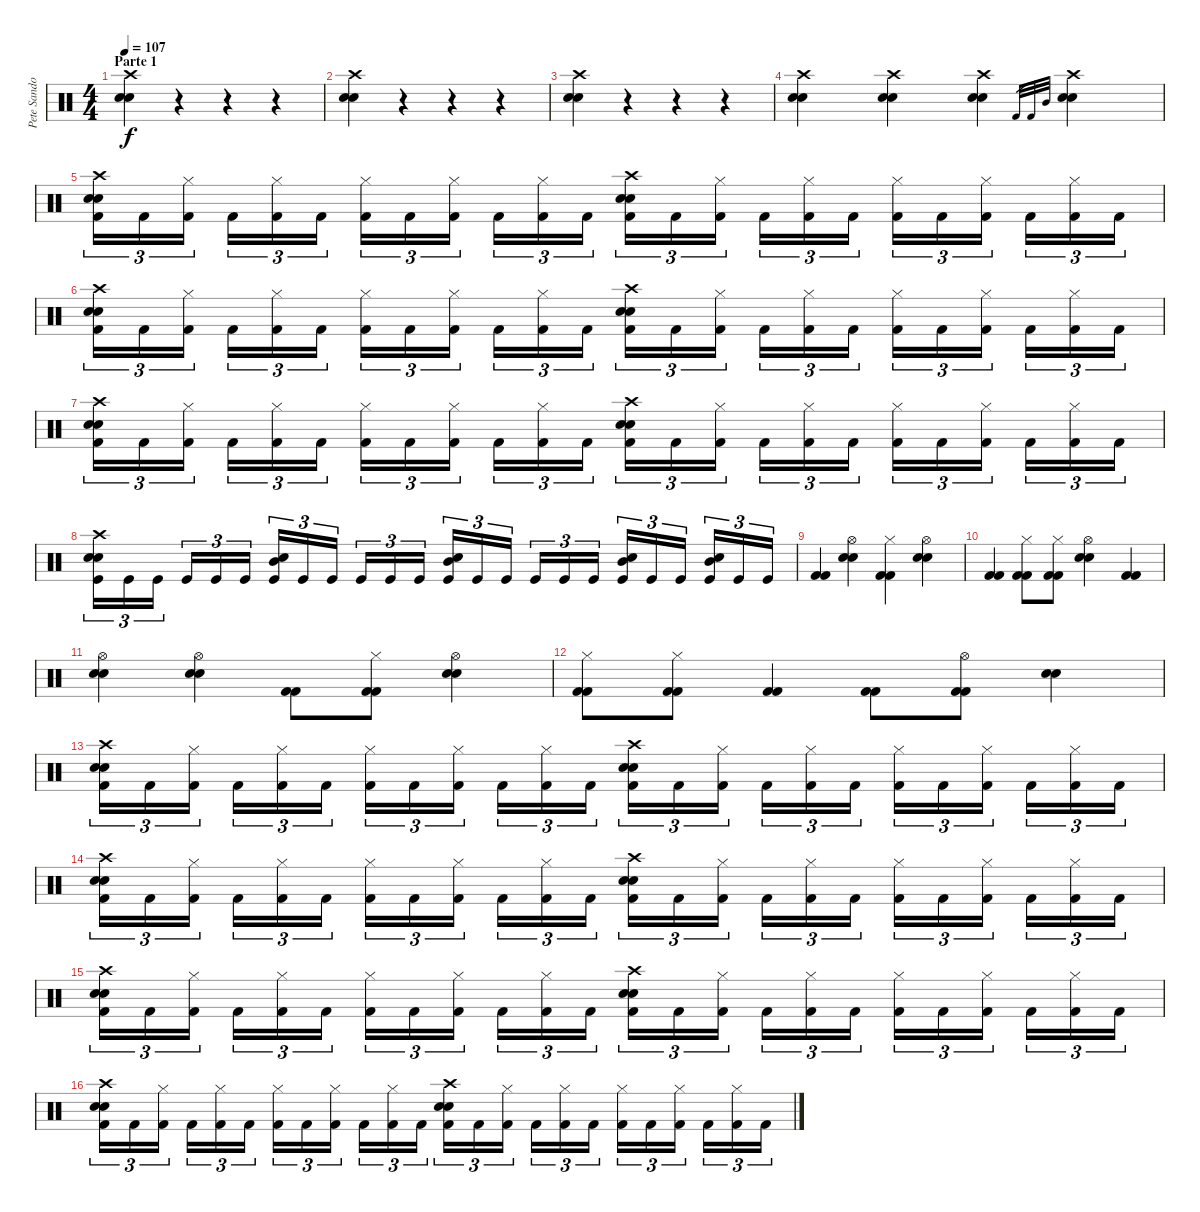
\track ("Pete Sandoval" "Pete Sando") {instrument percussion}
\staff {score}
\articulation defaults
\ts (4 4)
\section ("" "Parte 1")
\tempo 107
\clef neutral
\ks c
("Crash high (hit)" "Electric Snare (hit)" "Electric Snare (hit)").4{dy f} r.4 r.4 r.4 |
("Crash high (hit)" "Electric Snare (hit)" "Electric Snare (hit)").4 r.4 r.4 r.4 |
("Crash high (hit)" "Electric Snare (hit)" "Electric Snare (hit)").4 r.4 r.4 r.4 |
("Crash high (hit)" "Electric Snare (hit)" "Electric Snare (hit)").4 ("Crash high (hit)" "Electric Snare (hit)" "Electric Snare (hit)").4 ("Crash high (hit)" "Electric Snare (hit)" "Electric Snare (hit)").4 "Kick (hit) 2".32{gr} "Kick (hit) 2".32{gr} "Mid Tom (hit)".32{gr} ("Crash high (hit)" "Electric Snare (hit)" "Electric Snare (hit)").4 |
("Crash high (hit)" "Electric Snare (hit)" "Electric Snare (hit)" "Kick (hit) 2").16{tu (3 2)} "Kick (hit) 2".16{tu (3 2)} ("Hi-Hat (closed)" "Kick (hit) 2").16{tu (3 2)} "Kick (hit) 2".16{tu (3 2)} ("Hi-Hat (closed)" "Kick (hit) 2").16{tu (3 2)} "Kick (hit) 2".16{tu (3 2)} ("Hi-Hat (closed)" "Kick (hit) 2").16{tu (3 2)} "Kick (hit) 2".16{tu (3 2)} ("Hi-Hat (closed)" "Kick (hit) 2").16{tu (3 2)} "Kick (hit) 2".16{tu (3 2)} ("Hi-Hat (closed)" "Kick (hit) 2").16{tu (3 2)} "Kick (hit) 2".16{tu (3 2)} ("Crash high (hit)" "Electric Snare (hit)" "Electric Snare (hit)" "Kick (hit) 2").16{tu (3 2)} "Kick (hit) 2".16{tu (3 2)} ("Hi-Hat (closed)" "Kick (hit) 2").16{tu (3 2)} "Kick (hit) 2".16{tu (3 2)} ("Hi-Hat (closed)" "Kick (hit) 2").16{tu (3 2)} "Kick (hit) 2".16{tu (3 2)} ("Hi-Hat (closed)" "Kick (hit) 2").16{tu (3 2)} "Kick (hit) 2".16{tu (3 2)} ("Hi-Hat (closed)" "Kick (hit) 2").16{tu (3 2)} "Kick (hit) 2".16{tu (3 2)} ("Hi-Hat (closed)" "Kick (hit) 2").16{tu (3 2)} "Kick (hit) 2".16{tu (3 2)} |
("Crash high (hit)" "Electric Snare (hit)" "Electric Snare (hit)" "Kick (hit) 2").16{tu (3 2)} "Kick (hit) 2".16{tu (3 2)} ("Hi-Hat (closed)" "Kick (hit) 2").16{tu (3 2)} "Kick (hit) 2".16{tu (3 2)} ("Hi-Hat (closed)" "Kick (hit) 2").16{tu (3 2)} "Kick (hit) 2".16{tu (3 2)} ("Hi-Hat (closed)" "Kick (hit) 2").16{tu (3 2)} "Kick (hit) 2".16{tu (3 2)} ("Hi-Hat (closed)" "Kick (hit) 2").16{tu (3 2)} "Kick (hit) 2".16{tu (3 2)} ("Hi-Hat (closed)" "Kick (hit) 2").16{tu (3 2)} "Kick (hit) 2".16{tu (3 2)} ("Crash high (hit)" "Electric Snare (hit)" "Electric Snare (hit)" "Kick (hit) 2").16{tu (3 2)} "Kick (hit) 2".16{tu (3 2)} ("Hi-Hat (closed)" "Kick (hit) 2").16{tu (3 2)} "Kick (hit) 2".16{tu (3 2)} ("Hi-Hat (closed)" "Kick (hit) 2").16{tu (3 2)} "Kick (hit) 2".16{tu (3 2)} ("Hi-Hat (closed)" "Kick (hit) 2").16{tu (3 2)} "Kick (hit) 2".16{tu (3 2)} ("Hi-Hat (closed)" "Kick (hit) 2").16{tu (3 2)} "Kick (hit) 2".16{tu (3 2)} ("Hi-Hat (closed)" "Kick (hit) 2").16{tu (3 2)} "Kick (hit) 2".16{tu (3 2)} |
("Crash high (hit)" "Electric Snare (hit)" "Electric Snare (hit)" "Kick (hit) 2").16{tu (3 2)} "Kick (hit) 2".16{tu (3 2)} ("Hi-Hat (closed)" "Kick (hit) 2").16{tu (3 2)} "Kick (hit) 2".16{tu (3 2)} ("Hi-Hat (closed)" "Kick (hit) 2").16{tu (3 2)} "Kick (hit) 2".16{tu (3 2)} ("Hi-Hat (closed)" "Kick (hit) 2").16{tu (3 2)} "Kick (hit) 2".16{tu (3 2)} ("Hi-Hat (closed)" "Kick (hit) 2").16{tu (3 2)} "Kick (hit) 2".16{tu (3 2)} ("Hi-Hat (closed)" "Kick (hit) 2").16{tu (3 2)} "Kick (hit) 2".16{tu (3 2)} ("Crash high (hit)" "Electric Snare (hit)" "Electric Snare (hit)" "Kick (hit) 2").16{tu (3 2)} "Kick (hit) 2".16{tu (3 2)} ("Hi-Hat (closed)" "Kick (hit) 2").16{tu (3 2)} "Kick (hit) 2".16{tu (3 2)} ("Hi-Hat (closed)" "Kick (hit) 2").16{tu (3 2)} "Kick (hit) 2".16{tu (3 2)} ("Hi-Hat (closed)" "Kick (hit) 2").16{tu (3 2)} "Kick (hit) 2".16{tu (3 2)} ("Hi-Hat (closed)" "Kick (hit) 2").16{tu (3 2)} "Kick (hit) 2".16{tu (3 2)} ("Hi-Hat (closed)" "Kick (hit) 2").16{tu (3 2)} "Kick (hit) 2".16{tu (3 2)} |
("Crash high (hit)" "Electric Snare (hit)" "Electric Snare (hit)" "Kick (hit)").16{tu (3 2)} "Kick (hit)".16{tu (3 2)} "Kick (hit)".16{tu (3 2)} "Kick (hit)".16{tu (3 2)} "Kick (hit)".16{tu (3 2)} "Kick (hit)".16{tu (3 2)} ("Mid Tom (hit)" "Snare (hit) 2" "Kick (hit)").16{tu (3 2)} "Kick (hit)".16{tu (3 2)} "Kick (hit)".16{tu (3 2)} "Kick (hit)".16{tu (3 2)} "Kick (hit)".16{tu (3 2)} "Kick (hit)".16{tu (3 2)} ("Mid Tom (hit)" "Snare (hit) 2" "Kick (hit)").16{tu (3 2)} "Kick (hit)".16{tu (3 2)} "Kick (hit)".16{tu (3 2)} "Kick (hit)".16{tu (3 2)} "Kick (hit)".16{tu (3 2)} "Kick (hit)".16{tu (3 2)} ("Snare (hit) 2" "Mid Tom (hit)" "Kick (hit)").16{tu (3 2)} "Kick (hit)".16{tu (3 2)} "Kick (hit)".16{tu (3 2)} ("Mid Tom (hit)" "Snare (hit) 2" "Kick (hit)").16{tu (3 2)} "Kick (hit)".16{tu (3 2)} "Kick (hit)".16{tu (3 2)} |
("Kick (hit) 2" "Kick (hit) 2").4 ("Hi-Hat (open)" "Electric Snare (hit)" "Electric Snare (hit)").4 ("Hi-Hat (closed)" "Kick (hit) 2" "Kick (hit) 2").4 ("Hi-Hat (open)" "Electric Snare (hit)" "Electric Snare (hit)").4 |
("Kick (hit) 2" "Kick (hit) 2").4 ("Hi-Hat (closed)" "Kick (hit) 2" "Kick (hit) 2").8 ("Hi-Hat (closed)" "Kick (hit) 2" "Kick (hit) 2").8 ("Hi-Hat (open)" "Electric Snare (hit)" "Electric Snare (hit)").4 ("Kick (hit) 2" "Kick (hit) 2").4 |
("Hi-Hat (open)" "Electric Snare (hit)" "Electric Snare (hit)").4 ("Hi-Hat (open)" "Electric Snare (hit)" "Electric Snare (hit)").4 ("Kick (hit) 2" "Kick (hit) 2").8 ("Hi-Hat (closed)" "Kick (hit) 2" "Kick (hit) 2").8 ("Hi-Hat (open)" "Electric Snare (hit)" "Electric Snare (hit)").4 |
("Hi-Hat (closed)" "Kick (hit) 2" "Kick (hit) 2").8 ("Hi-Hat (closed)" "Kick (hit) 2" "Kick (hit) 2").8 ("Kick (hit) 2" "Kick (hit) 2").4 ("Kick (hit) 2" "Kick (hit) 2").8 ("Hi-Hat (open)" "Kick (hit) 2" "Kick (hit) 2").8 ("Electric Snare (hit)" "Electric Snare (hit)").4 |
("Crash high (hit)" "Electric Snare (hit)" "Electric Snare (hit)" "Kick (hit) 2").16{tu (3 2)} "Kick (hit) 2".16{tu (3 2)} ("Hi-Hat (closed)" "Kick (hit) 2").16{tu (3 2)} "Kick (hit) 2".16{tu (3 2)} ("Hi-Hat (closed)" "Kick (hit) 2").16{tu (3 2)} "Kick (hit) 2".16{tu (3 2)} ("Hi-Hat (closed)" "Kick (hit) 2").16{tu (3 2)} "Kick (hit) 2".16{tu (3 2)} ("Hi-Hat (closed)" "Kick (hit) 2").16{tu (3 2)} "Kick (hit) 2".16{tu (3 2)} ("Hi-Hat (closed)" "Kick (hit) 2").16{tu (3 2)} "Kick (hit) 2".16{tu (3 2)} ("Crash high (hit)" "Electric Snare (hit)" "Electric Snare (hit)" "Kick (hit) 2").16{tu (3 2)} "Kick (hit) 2".16{tu (3 2)} ("Hi-Hat (closed)" "Kick (hit) 2").16{tu (3 2)} "Kick (hit) 2".16{tu (3 2)} ("Hi-Hat (closed)" "Kick (hit) 2").16{tu (3 2)} "Kick (hit) 2".16{tu (3 2)} ("Hi-Hat (closed)" "Kick (hit) 2").16{tu (3 2)} "Kick (hit) 2".16{tu (3 2)} ("Hi-Hat (closed)" "Kick (hit) 2").16{tu (3 2)} "Kick (hit) 2".16{tu (3 2)} ("Hi-Hat (closed)" "Kick (hit) 2").16{tu (3 2)} "Kick (hit) 2".16{tu (3 2)} |
("Crash high (hit)" "Electric Snare (hit)" "Electric Snare (hit)" "Kick (hit) 2").16{tu (3 2)} "Kick (hit) 2".16{tu (3 2)} ("Hi-Hat (closed)" "Kick (hit) 2").16{tu (3 2)} "Kick (hit) 2".16{tu (3 2)} ("Hi-Hat (closed)" "Kick (hit) 2").16{tu (3 2)} "Kick (hit) 2".16{tu (3 2)} ("Hi-Hat (closed)" "Kick (hit) 2").16{tu (3 2)} "Kick (hit) 2".16{tu (3 2)} ("Hi-Hat (closed)" "Kick (hit) 2").16{tu (3 2)} "Kick (hit) 2".16{tu (3 2)} ("Hi-Hat (closed)" "Kick (hit) 2").16{tu (3 2)} "Kick (hit) 2".16{tu (3 2)} ("Crash high (hit)" "Electric Snare (hit)" "Electric Snare (hit)" "Kick (hit) 2").16{tu (3 2)} "Kick (hit) 2".16{tu (3 2)} ("Hi-Hat (closed)" "Kick (hit) 2").16{tu (3 2)} "Kick (hit) 2".16{tu (3 2)} ("Hi-Hat (closed)" "Kick (hit) 2").16{tu (3 2)} "Kick (hit) 2".16{tu (3 2)} ("Hi-Hat (closed)" "Kick (hit) 2").16{tu (3 2)} "Kick (hit) 2".16{tu (3 2)} ("Hi-Hat (closed)" "Kick (hit) 2").16{tu (3 2)} "Kick (hit) 2".16{tu (3 2)} ("Hi-Hat (closed)" "Kick (hit) 2").16{tu (3 2)} "Kick (hit) 2".16{tu (3 2)} |
("Crash high (hit)" "Electric Snare (hit)" "Electric Snare (hit)" "Kick (hit) 2").16{tu (3 2)} "Kick (hit) 2".16{tu (3 2)} ("Hi-Hat (closed)" "Kick (hit) 2").16{tu (3 2)} "Kick (hit) 2".16{tu (3 2)} ("Hi-Hat (closed)" "Kick (hit) 2").16{tu (3 2)} "Kick (hit) 2".16{tu (3 2)} ("Hi-Hat (closed)" "Kick (hit) 2").16{tu (3 2)} "Kick (hit) 2".16{tu (3 2)} ("Hi-Hat (closed)" "Kick (hit) 2").16{tu (3 2)} "Kick (hit) 2".16{tu (3 2)} ("Hi-Hat (closed)" "Kick (hit) 2").16{tu (3 2)} "Kick (hit) 2".16{tu (3 2)} ("Crash high (hit)" "Electric Snare (hit)" "Electric Snare (hit)" "Kick (hit) 2").16{tu (3 2)} "Kick (hit) 2".16{tu (3 2)} ("Hi-Hat (closed)" "Kick (hit) 2").16{tu (3 2)} "Kick (hit) 2".16{tu (3 2)} ("Hi-Hat (closed)" "Kick (hit) 2").16{tu (3 2)} "Kick (hit) 2".16{tu (3 2)} ("Hi-Hat (closed)" "Kick (hit) 2").16{tu (3 2)} "Kick (hit) 2".16{tu (3 2)} ("Hi-Hat (closed)" "Kick (hit) 2").16{tu (3 2)} "Kick (hit) 2".16{tu (3 2)} ("Hi-Hat (closed)" "Kick (hit) 2").16{tu (3 2)} "Kick (hit) 2".16{tu (3 2)} |
("Crash high (hit)" "Electric Snare (hit)" "Electric Snare (hit)" "Kick (hit) 2").16{tu (3 2)} "Kick (hit) 2".16{tu (3 2)} ("Hi-Hat (closed)" "Kick (hit) 2").16{tu (3 2)} "Kick (hit) 2".16{tu (3 2)} ("Hi-Hat (closed)" "Kick (hit) 2").16{tu (3 2)} "Kick (hit) 2".16{tu (3 2)} ("Hi-Hat (closed)" "Kick (hit) 2").16{tu (3 2)} "Kick (hit) 2".16{tu (3 2)} ("Hi-Hat (closed)" "Kick (hit) 2").16{tu (3 2)} "Kick (hit) 2".16{tu (3 2)} ("Hi-Hat (closed)" "Kick (hit) 2").16{tu (3 2)} "Kick (hit) 2".16{tu (3 2)} ("Crash high (hit)" "Electric Snare (hit)" "Electric Snare (hit)" "Kick (hit) 2").16{tu (3 2)} "Kick (hit) 2".16{tu (3 2)} ("Hi-Hat (closed)" "Kick (hit) 2").16{tu (3 2)} "Kick (hit) 2".16{tu (3 2)} ("Hi-Hat (closed)" "Kick (hit) 2").16{tu (3 2)} "Kick (hit) 2".16{tu (3 2)} ("Hi-Hat (closed)" "Kick (hit) 2").16{tu (3 2)} "Kick (hit) 2".16{tu (3 2)} ("Hi-Hat (closed)" "Kick (hit) 2").16{tu (3 2)} "Kick (hit) 2".16{tu (3 2)} ("Hi-Hat (closed)" "Kick (hit) 2").16{tu (3 2)} "Kick (hit) 2".16{tu (3 2)}
